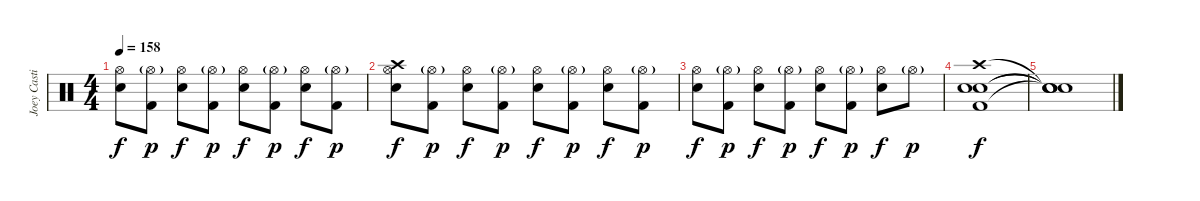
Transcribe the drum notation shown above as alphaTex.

\track ("Joey Castillo" "Joey Casti") {instrument percussion}
\staff {score}
\articulation defaults
\ts (4 4)
\tempo 158
\clef neutral
\ks c
("Hi-Hat (open)" "Electric Snare (hit)").8{dy f} ("Hi-Hat (open)"{g} "Kick (hit) 2").8{dy p} ("Hi-Hat (open)" "Electric Snare (hit)").8{dy f} ("Hi-Hat (open)"{g} "Kick (hit) 2").8{dy p} ("Hi-Hat (open)" "Electric Snare (hit)").8{dy f} ("Hi-Hat (open)"{g} "Kick (hit) 2").8{dy p} ("Hi-Hat (open)" "Electric Snare (hit)").8{dy f} ("Hi-Hat (open)"{g} "Kick (hit) 2").8{dy p} |
("Hi-Hat (open)" "Crash high (hit)" "Electric Snare (hit)").8{dy f} ("Hi-Hat (open)"{g} "Kick (hit) 2").8{dy p} ("Hi-Hat (open)" "Electric Snare (hit)").8{dy f} ("Hi-Hat (open)"{g} "Kick (hit) 2").8{dy p} ("Hi-Hat (open)" "Electric Snare (hit)").8{dy f} ("Hi-Hat (open)"{g} "Kick (hit) 2").8{dy p} ("Hi-Hat (open)" "Electric Snare (hit)").8{dy f} ("Hi-Hat (open)"{g} "Kick (hit) 2").8{dy p} |
("Hi-Hat (open)" "Electric Snare (hit)").8{dy f} ("Hi-Hat (open)"{g} "Kick (hit) 2").8{dy p} ("Hi-Hat (open)" "Electric Snare (hit)").8{dy f} ("Hi-Hat (open)"{g} "Kick (hit) 2").8{dy p} ("Hi-Hat (open)" "Electric Snare (hit)").8{dy f} ("Hi-Hat (open)"{g} "Kick (hit) 2").8{dy p} ("Hi-Hat (open)" "Electric Snare (hit)").8{dy f} "Hi-Hat (open)"{g}.8{dy p} |
("Crash high (hit)" "Electric Snare (hit)" "Electric Snare (hit)" "Kick (hit) 2").1{dy f} |
("Snare (hit)"{t} "Snare (hit)"{t} "Snare (hit)"{t} "Snare (hit)"{t}).1
